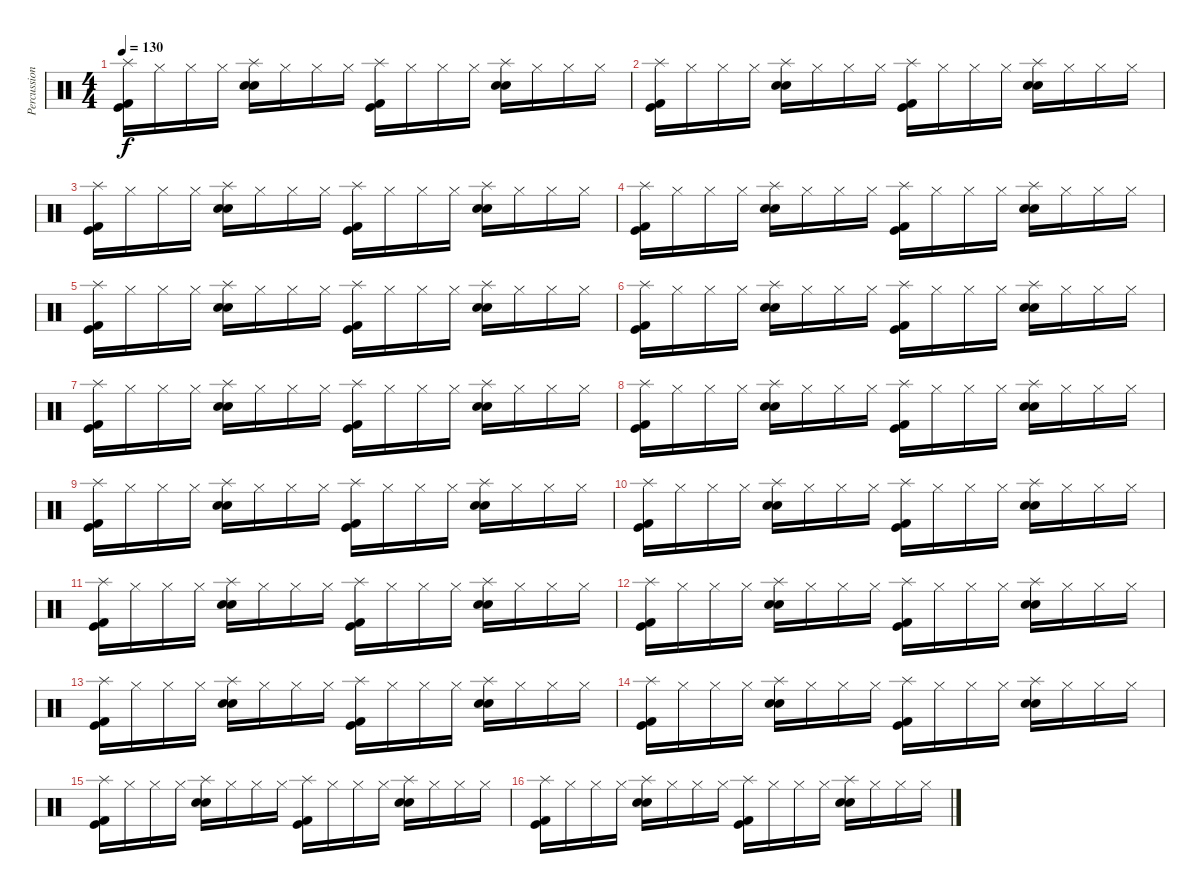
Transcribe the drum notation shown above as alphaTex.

\track ("Percussion" "Percussion") {instrument percussion}
\staff {score}
\articulation defaults
\ts (4 4)
\tempo 130
\clef neutral
\ks c
("Splash (hit)" "Kick (hit) 2" "Kick (hit)").16{dy f} "Hi-Hat (closed)".16 "Hi-Hat (closed)".16 "Hi-Hat (closed)".16 ("Splash (hit)" "Snare (hit) 2" "Electric Snare (hit)").16 "Hi-Hat (closed)".16 "Hi-Hat (closed)".16 "Hi-Hat (closed)".16 ("Splash (hit)" "Kick (hit) 2" "Kick (hit)").16 "Hi-Hat (closed)".16 "Hi-Hat (closed)".16 "Hi-Hat (closed)".16 ("Splash (hit)" "Snare (hit) 2" "Electric Snare (hit)").16 "Hi-Hat (closed)".16 "Hi-Hat (closed)".16 "Hi-Hat (closed)".16 |
("Splash (hit)" "Kick (hit) 2" "Kick (hit)").16 "Hi-Hat (closed)".16 "Hi-Hat (closed)".16 "Hi-Hat (closed)".16 ("Splash (hit)" "Snare (hit) 2" "Electric Snare (hit)").16 "Hi-Hat (closed)".16 "Hi-Hat (closed)".16 "Hi-Hat (closed)".16 ("Splash (hit)" "Kick (hit) 2" "Kick (hit)").16 "Hi-Hat (closed)".16 "Hi-Hat (closed)".16 "Hi-Hat (closed)".16 ("Splash (hit)" "Snare (hit) 2" "Electric Snare (hit)").16 "Hi-Hat (closed)".16 "Hi-Hat (closed)".16 "Hi-Hat (closed)".16 |
("Splash (hit)" "Kick (hit) 2" "Kick (hit)").16 "Hi-Hat (closed)".16 "Hi-Hat (closed)".16 "Hi-Hat (closed)".16 ("Splash (hit)" "Snare (hit) 2" "Electric Snare (hit)").16 "Hi-Hat (closed)".16 "Hi-Hat (closed)".16 "Hi-Hat (closed)".16 ("Splash (hit)" "Kick (hit) 2" "Kick (hit)").16 "Hi-Hat (closed)".16 "Hi-Hat (closed)".16 "Hi-Hat (closed)".16 ("Splash (hit)" "Snare (hit) 2" "Electric Snare (hit)").16 "Hi-Hat (closed)".16 "Hi-Hat (closed)".16 "Hi-Hat (closed)".16 |
("Splash (hit)" "Kick (hit) 2" "Kick (hit)").16 "Hi-Hat (closed)".16 "Hi-Hat (closed)".16 "Hi-Hat (closed)".16 ("Splash (hit)" "Snare (hit) 2" "Electric Snare (hit)").16 "Hi-Hat (closed)".16 "Hi-Hat (closed)".16 "Hi-Hat (closed)".16 ("Splash (hit)" "Kick (hit) 2" "Kick (hit)").16 "Hi-Hat (closed)".16 "Hi-Hat (closed)".16 "Hi-Hat (closed)".16 ("Splash (hit)" "Snare (hit) 2" "Electric Snare (hit)").16 "Hi-Hat (closed)".16 "Hi-Hat (closed)".16 "Hi-Hat (closed)".16 |
("Splash (hit)" "Kick (hit) 2" "Kick (hit)").16 "Hi-Hat (closed)".16 "Hi-Hat (closed)".16 "Hi-Hat (closed)".16 ("Splash (hit)" "Snare (hit) 2" "Electric Snare (hit)").16 "Hi-Hat (closed)".16 "Hi-Hat (closed)".16 "Hi-Hat (closed)".16 ("Splash (hit)" "Kick (hit) 2" "Kick (hit)").16 "Hi-Hat (closed)".16 "Hi-Hat (closed)".16 "Hi-Hat (closed)".16 ("Splash (hit)" "Snare (hit) 2" "Electric Snare (hit)").16 "Hi-Hat (closed)".16 "Hi-Hat (closed)".16 "Hi-Hat (closed)".16 |
("Splash (hit)" "Kick (hit) 2" "Kick (hit)").16 "Hi-Hat (closed)".16 "Hi-Hat (closed)".16 "Hi-Hat (closed)".16 ("Splash (hit)" "Snare (hit) 2" "Electric Snare (hit)").16 "Hi-Hat (closed)".16 "Hi-Hat (closed)".16 "Hi-Hat (closed)".16 ("Splash (hit)" "Kick (hit) 2" "Kick (hit)").16 "Hi-Hat (closed)".16 "Hi-Hat (closed)".16 "Hi-Hat (closed)".16 ("Splash (hit)" "Snare (hit) 2" "Electric Snare (hit)").16 "Hi-Hat (closed)".16 "Hi-Hat (closed)".16 "Hi-Hat (closed)".16 |
("Splash (hit)" "Kick (hit) 2" "Kick (hit)").16 "Hi-Hat (closed)".16 "Hi-Hat (closed)".16 "Hi-Hat (closed)".16 ("Splash (hit)" "Snare (hit) 2" "Electric Snare (hit)").16 "Hi-Hat (closed)".16 "Hi-Hat (closed)".16 "Hi-Hat (closed)".16 ("Splash (hit)" "Kick (hit) 2" "Kick (hit)").16 "Hi-Hat (closed)".16 "Hi-Hat (closed)".16 "Hi-Hat (closed)".16 ("Splash (hit)" "Snare (hit) 2" "Electric Snare (hit)").16 "Hi-Hat (closed)".16 "Hi-Hat (closed)".16 "Hi-Hat (closed)".16 |
("Splash (hit)" "Kick (hit) 2" "Kick (hit)").16 "Hi-Hat (closed)".16 "Hi-Hat (closed)".16 "Hi-Hat (closed)".16 ("Splash (hit)" "Snare (hit) 2" "Electric Snare (hit)").16 "Hi-Hat (closed)".16 "Hi-Hat (closed)".16 "Hi-Hat (closed)".16 ("Splash (hit)" "Kick (hit) 2" "Kick (hit)").16 "Hi-Hat (closed)".16 "Hi-Hat (closed)".16 "Hi-Hat (closed)".16 ("Splash (hit)" "Snare (hit) 2" "Electric Snare (hit)").16 "Hi-Hat (closed)".16 "Hi-Hat (closed)".16 "Hi-Hat (closed)".16 |
("Splash (hit)" "Kick (hit) 2" "Kick (hit)").16 "Hi-Hat (closed)".16 "Hi-Hat (closed)".16 "Hi-Hat (closed)".16 ("Splash (hit)" "Snare (hit) 2" "Electric Snare (hit)").16 "Hi-Hat (closed)".16 "Hi-Hat (closed)".16 "Hi-Hat (closed)".16 ("Splash (hit)" "Kick (hit) 2" "Kick (hit)").16 "Hi-Hat (closed)".16 "Hi-Hat (closed)".16 "Hi-Hat (closed)".16 ("Splash (hit)" "Snare (hit) 2" "Electric Snare (hit)").16 "Hi-Hat (closed)".16 "Hi-Hat (closed)".16 "Hi-Hat (closed)".16 |
("Splash (hit)" "Kick (hit) 2" "Kick (hit)").16 "Hi-Hat (closed)".16 "Hi-Hat (closed)".16 "Hi-Hat (closed)".16 ("Splash (hit)" "Snare (hit) 2" "Electric Snare (hit)").16 "Hi-Hat (closed)".16 "Hi-Hat (closed)".16 "Hi-Hat (closed)".16 ("Splash (hit)" "Kick (hit) 2" "Kick (hit)").16 "Hi-Hat (closed)".16 "Hi-Hat (closed)".16 "Hi-Hat (closed)".16 ("Splash (hit)" "Snare (hit) 2" "Electric Snare (hit)").16 "Hi-Hat (closed)".16 "Hi-Hat (closed)".16 "Hi-Hat (closed)".16 |
("Splash (hit)" "Kick (hit) 2" "Kick (hit)").16 "Hi-Hat (closed)".16 "Hi-Hat (closed)".16 "Hi-Hat (closed)".16 ("Splash (hit)" "Snare (hit) 2" "Electric Snare (hit)").16 "Hi-Hat (closed)".16 "Hi-Hat (closed)".16 "Hi-Hat (closed)".16 ("Splash (hit)" "Kick (hit) 2" "Kick (hit)").16 "Hi-Hat (closed)".16 "Hi-Hat (closed)".16 "Hi-Hat (closed)".16 ("Splash (hit)" "Snare (hit) 2" "Electric Snare (hit)").16 "Hi-Hat (closed)".16 "Hi-Hat (closed)".16 "Hi-Hat (closed)".16 |
("Splash (hit)" "Kick (hit) 2" "Kick (hit)").16 "Hi-Hat (closed)".16 "Hi-Hat (closed)".16 "Hi-Hat (closed)".16 ("Splash (hit)" "Snare (hit) 2" "Electric Snare (hit)").16 "Hi-Hat (closed)".16 "Hi-Hat (closed)".16 "Hi-Hat (closed)".16 ("Splash (hit)" "Kick (hit) 2" "Kick (hit)").16 "Hi-Hat (closed)".16 "Hi-Hat (closed)".16 "Hi-Hat (closed)".16 ("Splash (hit)" "Snare (hit) 2" "Electric Snare (hit)").16 "Hi-Hat (closed)".16 "Hi-Hat (closed)".16 "Hi-Hat (closed)".16 |
("Splash (hit)" "Kick (hit) 2" "Kick (hit)").16 "Hi-Hat (closed)".16 "Hi-Hat (closed)".16 "Hi-Hat (closed)".16 ("Splash (hit)" "Snare (hit) 2" "Electric Snare (hit)").16 "Hi-Hat (closed)".16 "Hi-Hat (closed)".16 "Hi-Hat (closed)".16 ("Splash (hit)" "Kick (hit) 2" "Kick (hit)").16 "Hi-Hat (closed)".16 "Hi-Hat (closed)".16 "Hi-Hat (closed)".16 ("Splash (hit)" "Snare (hit) 2" "Electric Snare (hit)").16 "Hi-Hat (closed)".16 "Hi-Hat (closed)".16 "Hi-Hat (closed)".16 |
("Splash (hit)" "Kick (hit) 2" "Kick (hit)").16 "Hi-Hat (closed)".16 "Hi-Hat (closed)".16 "Hi-Hat (closed)".16 ("Splash (hit)" "Snare (hit) 2" "Electric Snare (hit)").16 "Hi-Hat (closed)".16 "Hi-Hat (closed)".16 "Hi-Hat (closed)".16 ("Splash (hit)" "Kick (hit) 2" "Kick (hit)").16 "Hi-Hat (closed)".16 "Hi-Hat (closed)".16 "Hi-Hat (closed)".16 ("Splash (hit)" "Snare (hit) 2" "Electric Snare (hit)").16 "Hi-Hat (closed)".16 "Hi-Hat (closed)".16 "Hi-Hat (closed)".16 |
("Splash (hit)" "Kick (hit) 2" "Kick (hit)").16 "Hi-Hat (closed)".16 "Hi-Hat (closed)".16 "Hi-Hat (closed)".16 ("Splash (hit)" "Snare (hit) 2" "Electric Snare (hit)").16 "Hi-Hat (closed)".16 "Hi-Hat (closed)".16 "Hi-Hat (closed)".16 ("Splash (hit)" "Kick (hit) 2" "Kick (hit)").16 "Hi-Hat (closed)".16 "Hi-Hat (closed)".16 "Hi-Hat (closed)".16 ("Splash (hit)" "Snare (hit) 2" "Electric Snare (hit)").16 "Hi-Hat (closed)".16 "Hi-Hat (closed)".16 "Hi-Hat (closed)".16 |
("Splash (hit)" "Kick (hit) 2" "Kick (hit)").16 "Hi-Hat (closed)".16 "Hi-Hat (closed)".16 "Hi-Hat (closed)".16 ("Splash (hit)" "Snare (hit) 2" "Electric Snare (hit)").16 "Hi-Hat (closed)".16 "Hi-Hat (closed)".16 "Hi-Hat (closed)".16 ("Splash (hit)" "Kick (hit) 2" "Kick (hit)").16 "Hi-Hat (closed)".16 "Hi-Hat (closed)".16 "Hi-Hat (closed)".16 ("Splash (hit)" "Snare (hit) 2" "Electric Snare (hit)").16 "Hi-Hat (closed)".16 "Hi-Hat (closed)".16 "Hi-Hat (closed)".16
